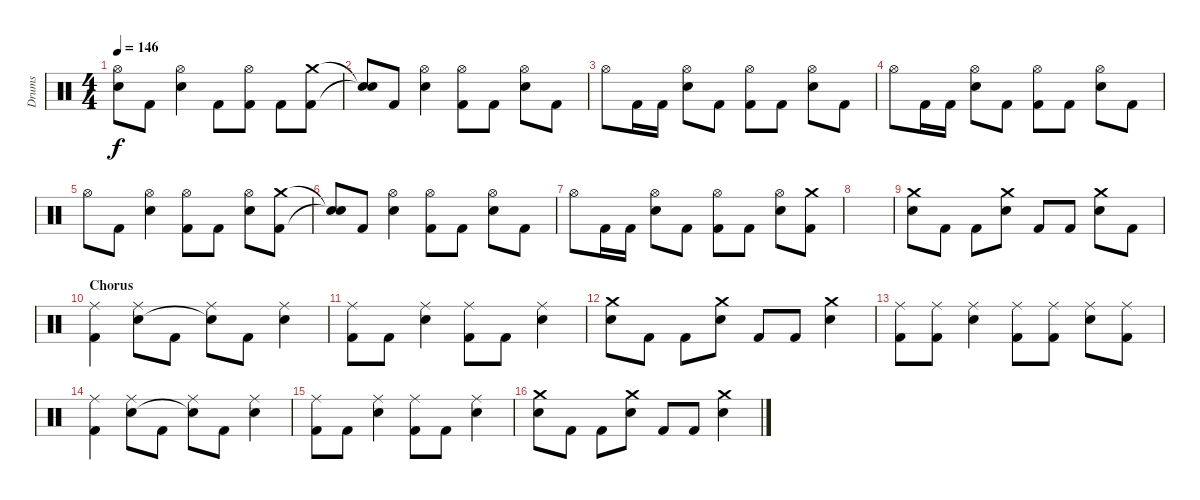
\track ("Drums" "Drums") {instrument percussion}
\staff {score}
\articulation defaults
\ts (4 4)
\tempo 146
\clef neutral
\ks c
("Hi-Hat (open)" "Snare (hit)"{t}).8{dy f} "Kick (hit) 2".8 ("Hi-Hat (open)" "Electric Snare (hit)").4 "Kick (hit) 2".8 ("Hi-Hat (open)" "Kick (hit) 2").8 "Kick (hit) 2".8 ("Crash medium (hit)" "Kick (hit) 2").8 |
("Snare (hit)"{t} "Snare (hit)"{t}).8 "Kick (hit) 2".8 ("Hi-Hat (open)" "Electric Snare (hit)").4 ("Hi-Hat (open)" "Kick (hit) 2").8 "Kick (hit) 2".8 ("Hi-Hat (open)" "Electric Snare (hit)").8 "Kick (hit) 2".8 |
"Hi-Hat (open)".8 "Kick (hit) 2".16 "Kick (hit) 2".16 ("Hi-Hat (open)" "Electric Snare (hit)").8 "Kick (hit) 2".8 ("Hi-Hat (open)" "Kick (hit) 2").8 "Kick (hit) 2".8 ("Hi-Hat (open)" "Electric Snare (hit)").8 "Kick (hit) 2".8 |
"Hi-Hat (open)".8 "Kick (hit) 2".16 "Kick (hit) 2".16 ("Hi-Hat (open)" "Electric Snare (hit)").8 "Kick (hit) 2".8 ("Hi-Hat (open)" "Kick (hit) 2").8 "Kick (hit) 2".8 ("Hi-Hat (open)" "Electric Snare (hit)").8 "Kick (hit) 2".8 |
"Hi-Hat (open)".8 "Kick (hit) 2".8 ("Hi-Hat (open)" "Electric Snare (hit)").4 ("Hi-Hat (open)" "Kick (hit) 2").8 "Kick (hit) 2".8 ("Hi-Hat (open)" "Electric Snare (hit)").8 ("Crash medium (hit)" "Kick (hit) 2").8 |
("Snare (hit)"{t} "Snare (hit)"{t}).8 "Kick (hit) 2".8 ("Hi-Hat (open)" "Electric Snare (hit)").4 ("Hi-Hat (open)" "Kick (hit) 2").8 "Kick (hit) 2".8 ("Hi-Hat (open)" "Electric Snare (hit)").8 "Kick (hit) 2".8 |
"Hi-Hat (open)".8 "Kick (hit) 2".16 "Kick (hit) 2".16 ("Hi-Hat (open)" "Electric Snare (hit)").8 "Kick (hit) 2".8 ("Hi-Hat (open)" "Kick (hit) 2").8 "Kick (hit) 2".8 ("Hi-Hat (open)" "Electric Snare (hit)").8 ("Crash medium (hit)" "Kick (hit) 2").8 |
|
("Crash medium (hit)" "Electric Snare (hit)").8 "Kick (hit) 2".8 "Kick (hit) 2".8 ("Crash medium (hit)" "Electric Snare (hit)").8 "Kick (hit) 2".8 "Kick (hit) 2".8 ("Crash medium (hit)" "Electric Snare (hit)").8 "Kick (hit) 2".8 |
\section ("" "Chorus")
("Ride (middle)" "Kick (hit) 2").4 ("Ride (middle)" "Electric Snare (hit)").8 "Kick (hit) 2".8 ("Ride (middle)" "Snare (hit)"{t}).8 "Kick (hit) 2".8 ("Ride (middle)" "Electric Snare (hit)").4 |
("Ride (middle)" "Kick (hit) 2").8 "Kick (hit) 2".8 ("Ride (middle)" "Electric Snare (hit)").4 ("Ride (middle)" "Kick (hit) 2").8 "Kick (hit) 2".8 ("Ride (middle)" "Electric Snare (hit)").4 |
("Crash medium (hit)" "Electric Snare (hit)").8 "Kick (hit) 2".8 "Kick (hit) 2".8 ("Crash medium (hit)" "Electric Snare (hit)").8 "Kick (hit) 2".8 "Kick (hit) 2".8 ("Crash medium (hit)" "Electric Snare (hit)").4 |
("Ride (middle)" "Kick (hit) 2").8 ("Ride (middle)" "Kick (hit) 2").8 ("Ride (middle)" "Electric Snare (hit)").4 ("Ride (middle)" "Kick (hit) 2").8 ("Ride (middle)" "Kick (hit) 2").8 ("Ride (middle)" "Electric Snare (hit)").8 ("Ride (middle)" "Kick (hit) 2").8 |
("Ride (middle)" "Kick (hit) 2").4 ("Ride (middle)" "Electric Snare (hit)").8 "Kick (hit) 2".8 ("Ride (middle)" "Snare (hit)"{t}).8 "Kick (hit) 2".8 ("Ride (middle)" "Electric Snare (hit)").4 |
("Ride (middle)" "Kick (hit) 2").8 "Kick (hit) 2".8 ("Ride (middle)" "Electric Snare (hit)").4 ("Ride (middle)" "Kick (hit) 2").8 "Kick (hit) 2".8 ("Ride (middle)" "Electric Snare (hit)").4 |
("Crash medium (hit)" "Electric Snare (hit)").8 "Kick (hit) 2".8 "Kick (hit) 2".8 ("Crash medium (hit)" "Electric Snare (hit)").8 "Kick (hit) 2".8 "Kick (hit) 2".8 ("Crash medium (hit)" "Electric Snare (hit)").4
